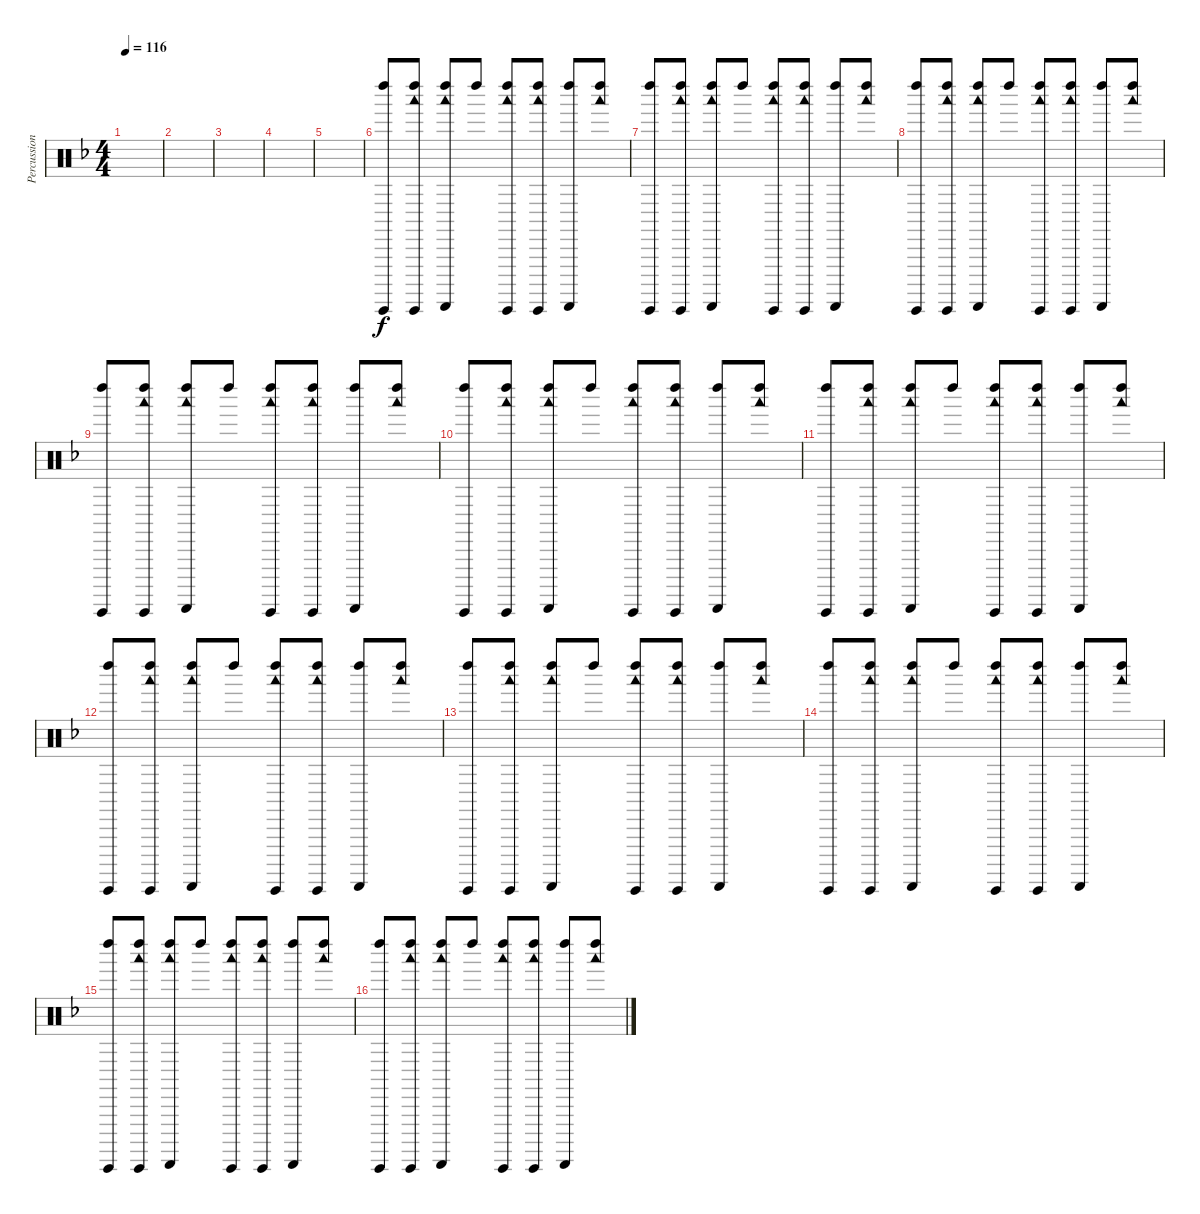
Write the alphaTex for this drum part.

\track ("Percussions" "Percussion") {instrument percussion}
\staff {score}
\articulation defaults
\ts (4 4)
\tempo 116
\clef neutral
\ks dminor
|
|
|
|
|
("Guiro (hit)" "Left Maraca (hit)").8 ("Guiro (hit)" "Left Maraca (hit)" "Woodblock low (hit)").8 ("Guiro (scrap-return)" "Left Maraca (hit)" "Woodblock low (hit)").8 "Left Maraca (hit)".8 ("Guiro (hit)" "Left Maraca (hit)" "Woodblock low (hit)").8 ("Guiro (hit)" "Left Maraca (hit)" "Woodblock low (hit)").8 ("Guiro (scrap-return)" "Left Maraca (hit)").8 ("Left Maraca (hit)" "Woodblock low (hit)").8 |
("Guiro (hit)" "Left Maraca (hit)").8 ("Guiro (hit)" "Left Maraca (hit)" "Woodblock low (hit)").8 ("Guiro (scrap-return)" "Left Maraca (hit)" "Woodblock low (hit)").8 "Left Maraca (hit)".8 ("Guiro (hit)" "Left Maraca (hit)" "Woodblock low (hit)").8 ("Guiro (hit)" "Left Maraca (hit)" "Woodblock low (hit)").8 ("Guiro (scrap-return)" "Left Maraca (hit)").8 ("Left Maraca (hit)" "Woodblock low (hit)").8 |
("Guiro (hit)" "Left Maraca (hit)").8 ("Guiro (hit)" "Left Maraca (hit)" "Woodblock low (hit)").8 ("Guiro (scrap-return)" "Left Maraca (hit)" "Woodblock low (hit)").8 "Left Maraca (hit)".8 ("Guiro (hit)" "Left Maraca (hit)" "Woodblock low (hit)").8 ("Guiro (hit)" "Left Maraca (hit)" "Woodblock low (hit)").8 ("Guiro (scrap-return)" "Left Maraca (hit)").8 ("Left Maraca (hit)" "Woodblock low (hit)").8 |
("Guiro (hit)" "Left Maraca (hit)").8 ("Guiro (hit)" "Left Maraca (hit)" "Woodblock low (hit)").8 ("Guiro (scrap-return)" "Left Maraca (hit)" "Woodblock low (hit)").8 "Left Maraca (hit)".8 ("Guiro (hit)" "Left Maraca (hit)" "Woodblock low (hit)").8 ("Guiro (hit)" "Left Maraca (hit)" "Woodblock low (hit)").8 ("Guiro (scrap-return)" "Left Maraca (hit)").8 ("Left Maraca (hit)" "Woodblock low (hit)").8 |
("Guiro (hit)" "Left Maraca (hit)").8 ("Guiro (hit)" "Left Maraca (hit)" "Woodblock low (hit)").8 ("Guiro (scrap-return)" "Left Maraca (hit)" "Woodblock low (hit)").8 "Left Maraca (hit)".8 ("Guiro (hit)" "Left Maraca (hit)" "Woodblock low (hit)").8 ("Guiro (hit)" "Left Maraca (hit)" "Woodblock low (hit)").8 ("Guiro (scrap-return)" "Left Maraca (hit)").8 ("Left Maraca (hit)" "Woodblock low (hit)").8 |
("Guiro (hit)" "Left Maraca (hit)").8 ("Guiro (hit)" "Left Maraca (hit)" "Woodblock low (hit)").8 ("Guiro (scrap-return)" "Left Maraca (hit)" "Woodblock low (hit)").8 "Left Maraca (hit)".8 ("Guiro (hit)" "Left Maraca (hit)" "Woodblock low (hit)").8 ("Guiro (hit)" "Left Maraca (hit)" "Woodblock low (hit)").8 ("Guiro (scrap-return)" "Left Maraca (hit)").8 ("Left Maraca (hit)" "Woodblock low (hit)").8 |
("Guiro (hit)" "Left Maraca (hit)").8 ("Guiro (hit)" "Left Maraca (hit)" "Woodblock low (hit)").8 ("Guiro (scrap-return)" "Left Maraca (hit)" "Woodblock low (hit)").8 "Left Maraca (hit)".8 ("Guiro (hit)" "Left Maraca (hit)" "Woodblock low (hit)").8 ("Guiro (hit)" "Left Maraca (hit)" "Woodblock low (hit)").8 ("Guiro (scrap-return)" "Left Maraca (hit)").8 ("Left Maraca (hit)" "Woodblock low (hit)").8 |
("Guiro (hit)" "Left Maraca (hit)").8 ("Guiro (hit)" "Left Maraca (hit)" "Woodblock low (hit)").8 ("Guiro (scrap-return)" "Left Maraca (hit)" "Woodblock low (hit)").8 "Left Maraca (hit)".8 ("Guiro (hit)" "Left Maraca (hit)" "Woodblock low (hit)").8 ("Guiro (hit)" "Left Maraca (hit)" "Woodblock low (hit)").8 ("Guiro (scrap-return)" "Left Maraca (hit)").8 ("Left Maraca (hit)" "Woodblock low (hit)").8 |
("Guiro (hit)" "Left Maraca (hit)").8 ("Guiro (hit)" "Left Maraca (hit)" "Woodblock low (hit)").8 ("Guiro (scrap-return)" "Left Maraca (hit)" "Woodblock low (hit)").8 "Left Maraca (hit)".8 ("Guiro (hit)" "Left Maraca (hit)" "Woodblock low (hit)").8 ("Guiro (hit)" "Left Maraca (hit)" "Woodblock low (hit)").8 ("Guiro (scrap-return)" "Left Maraca (hit)").8 ("Left Maraca (hit)" "Woodblock low (hit)").8 |
("Guiro (hit)" "Left Maraca (hit)").8 ("Guiro (hit)" "Left Maraca (hit)" "Woodblock low (hit)").8 ("Guiro (scrap-return)" "Left Maraca (hit)" "Woodblock low (hit)").8 "Left Maraca (hit)".8 ("Guiro (hit)" "Left Maraca (hit)" "Woodblock low (hit)").8 ("Guiro (hit)" "Left Maraca (hit)" "Woodblock low (hit)").8 ("Guiro (scrap-return)" "Left Maraca (hit)").8 ("Left Maraca (hit)" "Woodblock low (hit)").8 |
("Guiro (hit)" "Left Maraca (hit)").8 ("Guiro (hit)" "Left Maraca (hit)" "Woodblock low (hit)").8 ("Guiro (scrap-return)" "Left Maraca (hit)" "Woodblock low (hit)").8 "Left Maraca (hit)".8 ("Guiro (hit)" "Left Maraca (hit)" "Woodblock low (hit)").8 ("Guiro (hit)" "Left Maraca (hit)" "Woodblock low (hit)").8 ("Guiro (scrap-return)" "Left Maraca (hit)").8 ("Left Maraca (hit)" "Woodblock low (hit)").8
